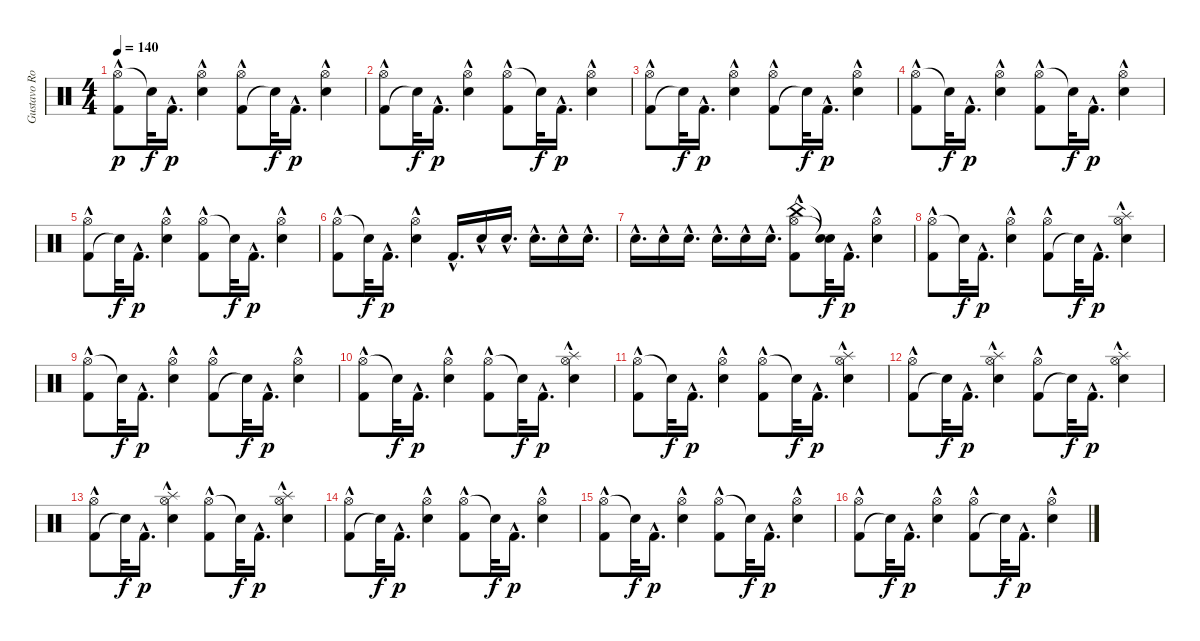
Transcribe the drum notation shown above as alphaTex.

\track ("Gustavo Rowek" "Gustavo Ro") {instrument percussion}
\staff {score}
\articulation defaults
\ts (4 4)
\tempo 140
\clef neutral
\ks c
("Hi-Hat (open)" "Kick (hit) 2"{hac}).8{dy p} "Snare (hit)"{t}.32{dy f} "Kick (hit) 2"{hac}.16{d dy p} ("Snare (hit) 2"{hac} "Hi-Hat (open)").4 ("Kick (hit) 2"{hac} "Hi-Hat (open)").8 "Snare (hit)"{t}.32{dy f} "Kick (hit) 2"{hac}.16{d dy p} ("Hi-Hat (open)" "Snare (hit) 2"{hac}).4 |
("Kick (hit) 2"{hac} "Hi-Hat (open)").8 "Snare (hit)"{t}.32{dy f} "Kick (hit) 2"{hac}.16{d dy p} ("Snare (hit) 2"{hac} "Hi-Hat (open)").4 ("Hi-Hat (open)" "Kick (hit) 2"{hac}).8 "Snare (hit)"{t}.32{dy f} "Kick (hit) 2"{hac}.16{d dy p} ("Hi-Hat (open)" "Snare (hit) 2"{hac}).4 |
("Kick (hit) 2"{hac} "Hi-Hat (open)").8 "Snare (hit)"{t}.32{dy f} "Kick (hit) 2"{hac}.16{d dy p} ("Hi-Hat (open)" "Snare (hit) 2"{hac}).4 ("Kick (hit) 2"{hac} "Hi-Hat (open)").8 "Snare (hit)"{t}.32{dy f} "Kick (hit) 2"{hac}.16{d dy p} ("Snare (hit) 2"{hac} "Hi-Hat (open)").4 |
("Hi-Hat (open)" "Kick (hit) 2"{hac}).8 "Snare (hit)"{t}.32{dy f} "Kick (hit) 2"{hac}.16{d dy p} ("Hi-Hat (open)" "Snare (hit) 2"{hac}).4 ("Hi-Hat (open)" "Kick (hit) 2"{hac}).8 "Snare (hit)"{t}.32{dy f} "Kick (hit) 2"{hac}.16{d dy p} ("Hi-Hat (open)" "Snare (hit) 2"{hac}).4 |
("Kick (hit) 2"{hac} "Hi-Hat (open)").8 "Snare (hit)"{t}.32{dy f} "Kick (hit) 2"{hac}.16{d dy p} ("Snare (hit) 2"{hac} "Hi-Hat (open)").4 ("Hi-Hat (open)" "Kick (hit) 2"{hac}).8 "Snare (hit)"{t}.32{dy f} "Kick (hit) 2"{hac}.16{d dy p} ("Hi-Hat (open)" "Snare (hit) 2"{hac}).4 |
("Hi-Hat (open)" "Kick (hit) 2"{hac}).8 "Snare (hit)"{t}.32{dy f} "Kick (hit) 2"{hac}.16{d dy p} ("Snare (hit) 2"{hac} "Hi-Hat (open)").4 "Kick (hit) 2"{hac}.16{d} "Snare (hit) 2"{hac}.16 "Snare (hit) 2"{hac}.16{d} "Snare (hit) 2"{hac}.16{d} "Snare (hit) 2"{hac}.16 "Snare (hit) 2"{hac}.16{d} |
"Snare (hit) 2"{hac}.16{d} "Snare (hit) 2"{hac}.16 "Snare (hit) 2"{hac}.16{d} "Snare (hit) 2"{hac}.16{d} "Snare (hit) 2"{hac}.16 "Snare (hit) 2"{hac}.16{d} ("Hi-Hat (open)" "China (hit)" "Kick (hit) 2"{hac}).8 ("Snare (hit)"{t} "Snare (hit)"{t}).32{dy f} "Kick (hit) 2"{hac}.16{d dy p} ("Snare (hit) 2"{hac} "Hi-Hat (open)").4 |
("Hi-Hat (open)" "Kick (hit) 2"{hac}).8 "Snare (hit)"{t}.32{dy f} "Kick (hit) 2"{hac}.16{d dy p} ("Snare (hit) 2"{hac} "Hi-Hat (open)").4 ("Kick (hit) 2"{hac} "Hi-Hat (open)").8 "Snare (hit)"{t}.32{dy f} "Kick (hit) 2"{hac}.16{d dy p} ("Snare (hit) 2"{hac} "Hi-Hat (open)" "Splash (hit)").4 |
("Hi-Hat (open)" "Kick (hit) 2"{hac}).8 "Snare (hit)"{t}.32{dy f} "Kick (hit) 2"{hac}.16{d dy p} ("Hi-Hat (open)" "Snare (hit) 2"{hac}).4 ("Kick (hit) 2"{hac} "Hi-Hat (open)").8 "Snare (hit)"{t}.32{dy f} "Kick (hit) 2"{hac}.16{d dy p} ("Snare (hit) 2"{hac} "Hi-Hat (open)").4 |
("Hi-Hat (open)" "Kick (hit) 2"{hac}).8 "Snare (hit)"{t}.32{dy f} "Kick (hit) 2"{hac}.16{d dy p} ("Hi-Hat (open)" "Snare (hit) 2"{hac}).4 ("Hi-Hat (open)" "Kick (hit) 2"{hac}).8 "Snare (hit)"{t}.32{dy f} "Kick (hit) 2"{hac}.16{d dy p} ("Hi-Hat (open)" "Splash (hit)" "Snare (hit) 2"{hac}).4 |
("Hi-Hat (open)" "Kick (hit) 2"{hac}).8 "Snare (hit)"{t}.32{dy f} "Kick (hit) 2"{hac}.16{d dy p} ("Snare (hit) 2"{hac} "Hi-Hat (open)").4 ("Hi-Hat (open)" "Kick (hit) 2"{hac}).8 "Snare (hit)"{t}.32{dy f} "Kick (hit) 2"{hac}.16{d dy p} ("Snare (hit) 2"{hac} "Hi-Hat (open)" "Splash (hit)").4 |
("Kick (hit) 2"{hac} "Hi-Hat (open)").8 "Snare (hit)"{t}.32{dy f} "Kick (hit) 2"{hac}.16{d dy p} ("Hi-Hat (open)" "Splash (hit)" "Snare (hit) 2"{hac}).4 ("Kick (hit) 2"{hac} "Hi-Hat (open)").8 "Snare (hit)"{t}.32{dy f} "Kick (hit) 2"{hac}.16{d dy p} ("Snare (hit) 2"{hac} "Splash (hit)" "Hi-Hat (open)").4 |
("Kick (hit) 2"{hac} "Hi-Hat (open)").8 "Snare (hit)"{t}.32{dy f} "Kick (hit) 2"{hac}.16{d dy p} ("Snare (hit) 2"{hac} "Hi-Hat (open)" "Splash (hit)").4 ("Hi-Hat (open)" "Kick (hit) 2"{hac}).8 "Snare (hit)"{t}.32{dy f} "Kick (hit) 2"{hac}.16{d dy p} ("Hi-Hat (open)" "Snare (hit) 2"{hac} "Splash (hit)").4 |
("Kick (hit) 2"{hac} "Hi-Hat (open)").8 "Snare (hit)"{t}.32{dy f} "Kick (hit) 2"{hac}.16{d dy p} ("Snare (hit) 2"{hac} "Hi-Hat (open)").4 ("Hi-Hat (open)" "Kick (hit) 2"{hac}).8 "Snare (hit)"{t}.32{dy f} "Kick (hit) 2"{hac}.16{d dy p} ("Hi-Hat (open)" "Snare (hit) 2"{hac}).4 |
("Hi-Hat (open)" "Kick (hit) 2"{hac}).8 "Snare (hit)"{t}.32{dy f} "Kick (hit) 2"{hac}.16{d dy p} ("Snare (hit) 2"{hac} "Hi-Hat (open)").4 ("Hi-Hat (open)" "Kick (hit) 2"{hac}).8 "Snare (hit)"{t}.32{dy f} "Kick (hit) 2"{hac}.16{d dy p} ("Hi-Hat (open)" "Snare (hit) 2"{hac}).4 |
("Kick (hit) 2"{hac} "Hi-Hat (open)").8 "Snare (hit)"{t}.32{dy f} "Kick (hit) 2"{hac}.16{d dy p} ("Snare (hit) 2"{hac} "Hi-Hat (open)").4 ("Kick (hit) 2"{hac} "Hi-Hat (open)").8 "Snare (hit)"{t}.32{dy f} "Kick (hit) 2"{hac}.16{d dy p} ("Snare (hit) 2"{hac} "Hi-Hat (open)").4
